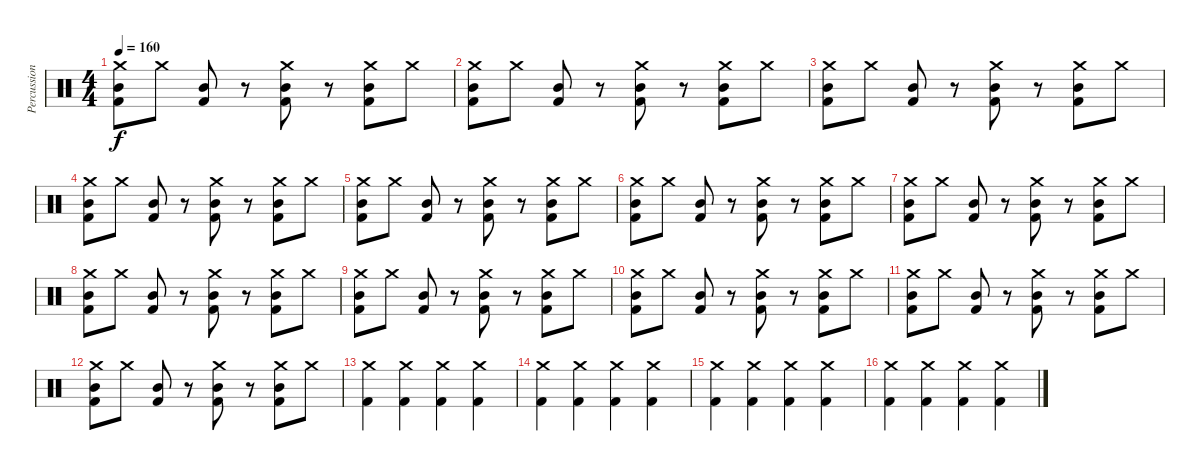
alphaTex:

\track ("Percussion" "Percussion") {instrument percussion}
\staff {score}
\articulation defaults
\ts (4 4)
\tempo 160
\clef neutral
\ks c
("Crash medium (hit)" "Mid Tom (hit)" "Kick (hit) 2").8{dy f} "Crash medium (hit)".8 ("Mid Tom (hit)" "Kick (hit) 2").8 r.8 ("Crash medium (hit)" "Mid Tom (hit)" "Kick (hit) 2").8 r.8 ("Crash medium (hit)" "Mid Tom (hit)" "Kick (hit) 2").8 "Crash medium (hit)".8 |
("Crash medium (hit)" "Mid Tom (hit)" "Kick (hit) 2").8 "Crash medium (hit)".8 ("Mid Tom (hit)" "Kick (hit) 2").8 r.8 ("Crash medium (hit)" "Mid Tom (hit)" "Kick (hit) 2").8 r.8 ("Crash medium (hit)" "Mid Tom (hit)" "Kick (hit) 2").8 "Crash medium (hit)".8 |
("Crash medium (hit)" "Mid Tom (hit)" "Kick (hit) 2").8 "Crash medium (hit)".8 ("Mid Tom (hit)" "Kick (hit) 2").8 r.8 ("Crash medium (hit)" "Mid Tom (hit)" "Kick (hit) 2").8 r.8 ("Crash medium (hit)" "Mid Tom (hit)" "Kick (hit) 2").8 "Crash medium (hit)".8 |
("Crash medium (hit)" "Mid Tom (hit)" "Kick (hit) 2").8 "Crash medium (hit)".8 ("Mid Tom (hit)" "Kick (hit) 2").8 r.8 ("Crash medium (hit)" "Mid Tom (hit)" "Kick (hit) 2").8 r.8 ("Crash medium (hit)" "Mid Tom (hit)" "Kick (hit) 2").8 "Crash medium (hit)".8 |
("Crash medium (hit)" "Mid Tom (hit)" "Kick (hit) 2").8 "Crash medium (hit)".8 ("Mid Tom (hit)" "Kick (hit) 2").8 r.8 ("Crash medium (hit)" "Mid Tom (hit)" "Kick (hit) 2").8 r.8 ("Crash medium (hit)" "Mid Tom (hit)" "Kick (hit) 2").8 "Crash medium (hit)".8 |
("Crash medium (hit)" "Mid Tom (hit)" "Kick (hit) 2").8 "Crash medium (hit)".8 ("Mid Tom (hit)" "Kick (hit) 2").8 r.8 ("Crash medium (hit)" "Mid Tom (hit)" "Kick (hit) 2").8 r.8 ("Crash medium (hit)" "Mid Tom (hit)" "Kick (hit) 2").8 "Crash medium (hit)".8 |
("Crash medium (hit)" "Mid Tom (hit)" "Kick (hit) 2").8 "Crash medium (hit)".8 ("Mid Tom (hit)" "Kick (hit) 2").8 r.8 ("Crash medium (hit)" "Mid Tom (hit)" "Kick (hit) 2").8 r.8 ("Crash medium (hit)" "Mid Tom (hit)" "Kick (hit) 2").8 "Crash medium (hit)".8 |
("Crash medium (hit)" "Mid Tom (hit)" "Kick (hit) 2").8 "Crash medium (hit)".8 ("Mid Tom (hit)" "Kick (hit) 2").8 r.8 ("Crash medium (hit)" "Mid Tom (hit)" "Kick (hit) 2").8 r.8 ("Crash medium (hit)" "Mid Tom (hit)" "Kick (hit) 2").8 "Crash medium (hit)".8 |
("Crash medium (hit)" "Mid Tom (hit)" "Kick (hit) 2").8 "Crash medium (hit)".8 ("Mid Tom (hit)" "Kick (hit) 2").8 r.8 ("Crash medium (hit)" "Mid Tom (hit)" "Kick (hit) 2").8 r.8 ("Crash medium (hit)" "Mid Tom (hit)" "Kick (hit) 2").8 "Crash medium (hit)".8 |
("Crash medium (hit)" "Mid Tom (hit)" "Kick (hit) 2").8 "Crash medium (hit)".8 ("Mid Tom (hit)" "Kick (hit) 2").8 r.8 ("Crash medium (hit)" "Mid Tom (hit)" "Kick (hit) 2").8 r.8 ("Crash medium (hit)" "Mid Tom (hit)" "Kick (hit) 2").8 "Crash medium (hit)".8 |
("Crash medium (hit)" "Mid Tom (hit)" "Kick (hit) 2").8 "Crash medium (hit)".8 ("Mid Tom (hit)" "Kick (hit) 2").8 r.8 ("Crash medium (hit)" "Mid Tom (hit)" "Kick (hit) 2").8 r.8 ("Crash medium (hit)" "Mid Tom (hit)" "Kick (hit) 2").8 "Crash medium (hit)".8 |
("Crash medium (hit)" "Mid Tom (hit)" "Kick (hit) 2").8 "Crash medium (hit)".8 ("Mid Tom (hit)" "Kick (hit) 2").8 r.8 ("Crash medium (hit)" "Mid Tom (hit)" "Kick (hit) 2").8 r.8 ("Crash medium (hit)" "Mid Tom (hit)" "Kick (hit) 2").8 "Crash medium (hit)".8 |
("Crash medium (hit)" "Kick (hit) 2").4 ("Crash medium (hit)" "Kick (hit) 2").4 ("Crash medium (hit)" "Kick (hit) 2").4 ("Crash medium (hit)" "Kick (hit) 2").4 |
("Crash medium (hit)" "Kick (hit) 2").4 ("Crash medium (hit)" "Kick (hit) 2").4 ("Crash medium (hit)" "Kick (hit) 2").4 ("Crash medium (hit)" "Kick (hit) 2").4 |
("Crash medium (hit)" "Kick (hit) 2").4 ("Crash medium (hit)" "Kick (hit) 2").4 ("Crash medium (hit)" "Kick (hit) 2").4 ("Crash medium (hit)" "Kick (hit) 2").4 |
("Crash medium (hit)" "Kick (hit) 2").4 ("Crash medium (hit)" "Kick (hit) 2").4 ("Crash medium (hit)" "Kick (hit) 2").4 ("Crash medium (hit)" "Kick (hit) 2").4
